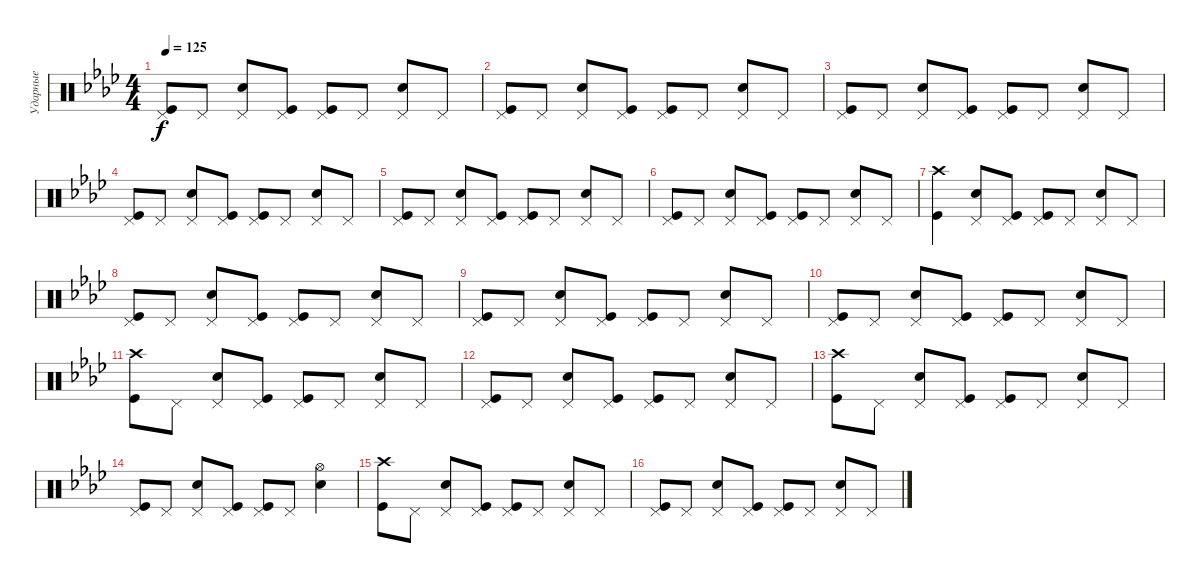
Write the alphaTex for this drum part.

\track ("Ударные" "Ударные") {solo instrument percussion}
\staff {score}
\articulation defaults
\ts (4 4)
\tempo 125
\clef neutral
\ks fminor
("Pedal Hi-Hat (hit)" "Kick (hit)").8{dy f} "Pedal Hi-Hat (hit)".8 ("Pedal Hi-Hat (hit)" "Electric Snare (hit)").8 ("Pedal Hi-Hat (hit)" "Kick (hit)").8 ("Pedal Hi-Hat (hit)" "Kick (hit)").8 "Pedal Hi-Hat (hit)".8 ("Pedal Hi-Hat (hit)" "Electric Snare (hit)").8 "Pedal Hi-Hat (hit)".8 |
("Pedal Hi-Hat (hit)" "Kick (hit)").8 "Pedal Hi-Hat (hit)".8 ("Pedal Hi-Hat (hit)" "Electric Snare (hit)").8 ("Pedal Hi-Hat (hit)" "Kick (hit)").8 ("Pedal Hi-Hat (hit)" "Kick (hit)").8 "Pedal Hi-Hat (hit)".8 ("Pedal Hi-Hat (hit)" "Electric Snare (hit)").8 "Pedal Hi-Hat (hit)".8 |
("Pedal Hi-Hat (hit)" "Kick (hit)").8 "Pedal Hi-Hat (hit)".8 ("Pedal Hi-Hat (hit)" "Electric Snare (hit)").8 ("Pedal Hi-Hat (hit)" "Kick (hit)").8 ("Pedal Hi-Hat (hit)" "Kick (hit)").8 "Pedal Hi-Hat (hit)".8 ("Pedal Hi-Hat (hit)" "Electric Snare (hit)").8 "Pedal Hi-Hat (hit)".8 |
("Pedal Hi-Hat (hit)" "Kick (hit)").8 "Pedal Hi-Hat (hit)".8 ("Pedal Hi-Hat (hit)" "Electric Snare (hit)").8 ("Pedal Hi-Hat (hit)" "Kick (hit)").8 ("Pedal Hi-Hat (hit)" "Kick (hit)").8 "Pedal Hi-Hat (hit)".8 ("Pedal Hi-Hat (hit)" "Electric Snare (hit)").8 "Pedal Hi-Hat (hit)".8 |
("Pedal Hi-Hat (hit)" "Kick (hit)").8 "Pedal Hi-Hat (hit)".8 ("Pedal Hi-Hat (hit)" "Electric Snare (hit)").8 ("Pedal Hi-Hat (hit)" "Kick (hit)").8 ("Pedal Hi-Hat (hit)" "Kick (hit)").8 "Pedal Hi-Hat (hit)".8 ("Pedal Hi-Hat (hit)" "Electric Snare (hit)").8 "Pedal Hi-Hat (hit)".8 |
("Pedal Hi-Hat (hit)" "Kick (hit)").8 "Pedal Hi-Hat (hit)".8 ("Pedal Hi-Hat (hit)" "Electric Snare (hit)").8 ("Pedal Hi-Hat (hit)" "Kick (hit)").8 ("Pedal Hi-Hat (hit)" "Kick (hit)").8 "Pedal Hi-Hat (hit)".8 ("Pedal Hi-Hat (hit)" "Electric Snare (hit)").8 "Pedal Hi-Hat (hit)".8 |
("Crash high (hit)" "Kick (hit)").4 ("Pedal Hi-Hat (hit)" "Electric Snare (hit)").8 ("Pedal Hi-Hat (hit)" "Kick (hit)").8 ("Pedal Hi-Hat (hit)" "Kick (hit)").8 "Pedal Hi-Hat (hit)".8 ("Pedal Hi-Hat (hit)" "Electric Snare (hit)").8 "Pedal Hi-Hat (hit)".8 |
("Pedal Hi-Hat (hit)" "Kick (hit)").8 "Pedal Hi-Hat (hit)".8 ("Pedal Hi-Hat (hit)" "Electric Snare (hit)").8 ("Pedal Hi-Hat (hit)" "Kick (hit)").8 ("Pedal Hi-Hat (hit)" "Kick (hit)").8 "Pedal Hi-Hat (hit)".8 ("Pedal Hi-Hat (hit)" "Electric Snare (hit)").8 "Pedal Hi-Hat (hit)".8 |
("Pedal Hi-Hat (hit)" "Kick (hit)").8 "Pedal Hi-Hat (hit)".8 ("Pedal Hi-Hat (hit)" "Electric Snare (hit)").8 ("Pedal Hi-Hat (hit)" "Kick (hit)").8 ("Pedal Hi-Hat (hit)" "Kick (hit)").8 "Pedal Hi-Hat (hit)".8 ("Pedal Hi-Hat (hit)" "Electric Snare (hit)").8 "Pedal Hi-Hat (hit)".8 |
("Pedal Hi-Hat (hit)" "Kick (hit)").8 "Pedal Hi-Hat (hit)".8 ("Pedal Hi-Hat (hit)" "Electric Snare (hit)").8 ("Pedal Hi-Hat (hit)" "Kick (hit)").8 ("Pedal Hi-Hat (hit)" "Kick (hit)").8 "Pedal Hi-Hat (hit)".8 ("Pedal Hi-Hat (hit)" "Electric Snare (hit)").8 "Pedal Hi-Hat (hit)".8 |
("Crash high (hit)" "Kick (hit)").8 "Pedal Hi-Hat (hit)".8 ("Pedal Hi-Hat (hit)" "Electric Snare (hit)").8 ("Pedal Hi-Hat (hit)" "Kick (hit)").8 ("Pedal Hi-Hat (hit)" "Kick (hit)").8 "Pedal Hi-Hat (hit)".8 ("Pedal Hi-Hat (hit)" "Electric Snare (hit)").8 "Pedal Hi-Hat (hit)".8 |
("Pedal Hi-Hat (hit)" "Kick (hit)").8 "Pedal Hi-Hat (hit)".8 ("Pedal Hi-Hat (hit)" "Electric Snare (hit)").8 ("Pedal Hi-Hat (hit)" "Kick (hit)").8 ("Pedal Hi-Hat (hit)" "Kick (hit)").8 "Pedal Hi-Hat (hit)".8 ("Pedal Hi-Hat (hit)" "Electric Snare (hit)").8 "Pedal Hi-Hat (hit)".8 |
("Crash high (hit)" "Kick (hit)").8 "Pedal Hi-Hat (hit)".8 ("Pedal Hi-Hat (hit)" "Electric Snare (hit)").8 ("Pedal Hi-Hat (hit)" "Kick (hit)").8 ("Pedal Hi-Hat (hit)" "Kick (hit)").8 "Pedal Hi-Hat (hit)".8 ("Pedal Hi-Hat (hit)" "Electric Snare (hit)").8 "Pedal Hi-Hat (hit)".8 |
("Pedal Hi-Hat (hit)" "Kick (hit)").8 "Pedal Hi-Hat (hit)".8 ("Pedal Hi-Hat (hit)" "Electric Snare (hit)").8 ("Pedal Hi-Hat (hit)" "Kick (hit)").8 ("Pedal Hi-Hat (hit)" "Kick (hit)").8 "Pedal Hi-Hat (hit)".8 ("Hi-Hat (open)" "Electric Snare (hit)").4 |
("Crash high (hit)" "Kick (hit)").8 "Pedal Hi-Hat (hit)".8 ("Pedal Hi-Hat (hit)" "Electric Snare (hit)").8 ("Pedal Hi-Hat (hit)" "Kick (hit)").8 ("Pedal Hi-Hat (hit)" "Kick (hit)").8 "Pedal Hi-Hat (hit)".8 ("Pedal Hi-Hat (hit)" "Electric Snare (hit)").8 "Pedal Hi-Hat (hit)".8 |
("Pedal Hi-Hat (hit)" "Kick (hit)").8 "Pedal Hi-Hat (hit)".8 ("Pedal Hi-Hat (hit)" "Electric Snare (hit)").8 ("Pedal Hi-Hat (hit)" "Kick (hit)").8 ("Pedal Hi-Hat (hit)" "Kick (hit)").8 "Pedal Hi-Hat (hit)".8 ("Pedal Hi-Hat (hit)" "Electric Snare (hit)").8 "Pedal Hi-Hat (hit)".8
